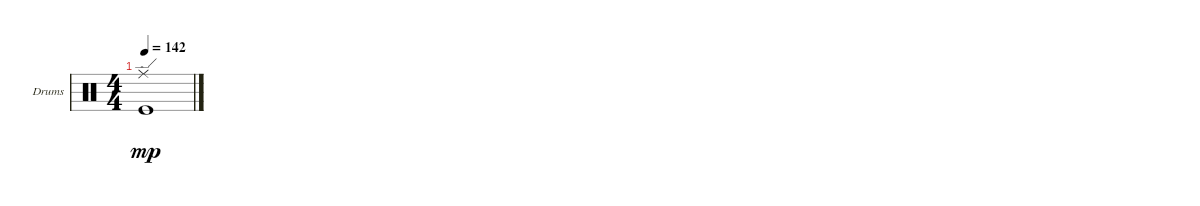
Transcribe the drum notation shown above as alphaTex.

\defaultSystemsLayout 4
\bracketExtendMode groupsimilarinstruments
\firstSystemTrackNameOrientation horizontal
\otherSystemsTrackNameOrientation horizontal
\track ("Drumkit" "Drums") {instrument percussion}
\staff {score}
\articulation defaults
\ts (4 4)
\tempo 142
\clef neutral
\ks c
("Kick (hit)" "Ride (edge)").1{dy mp}
